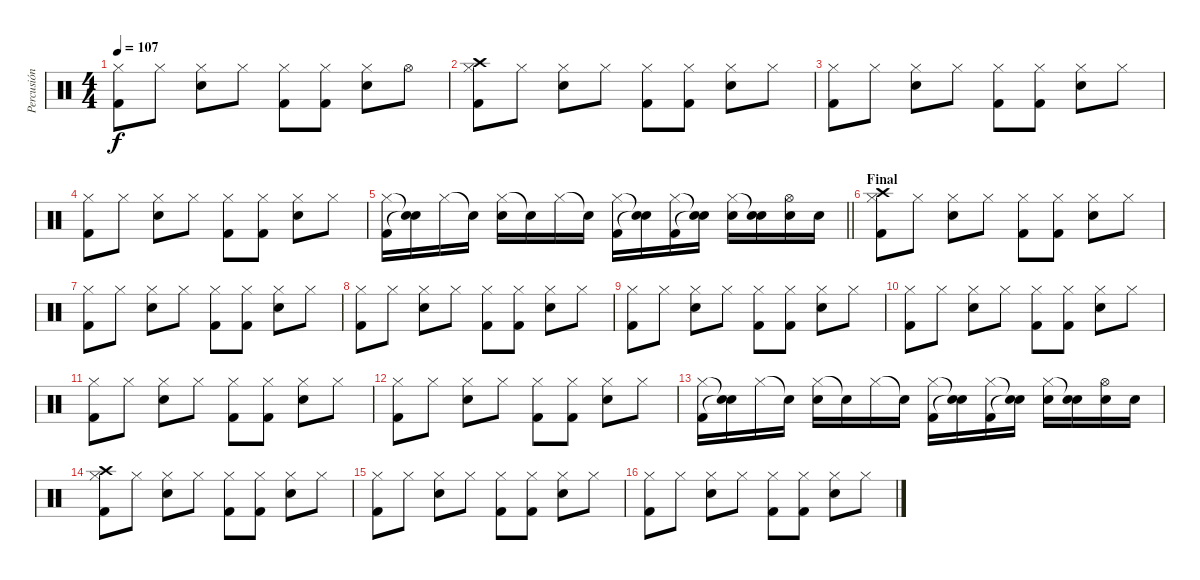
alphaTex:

\track ("Percusión" "Percusión") {instrument percussion}
\staff {score}
\articulation defaults
\ts (4 4)
\tempo 107
\clef neutral
\ks c
("Hi-Hat (closed)" "Kick (hit) 2").8{dy f} "Hi-Hat (closed)".8 ("Hi-Hat (closed)" "Snare (hit) 2").8 "Hi-Hat (closed)".8 ("Hi-Hat (closed)" "Kick (hit) 2").8 ("Hi-Hat (closed)" "Kick (hit) 2").8 ("Hi-Hat (closed)" "Snare (hit) 2").8 "Hi-Hat (open)".8 |
("Hi-Hat (closed)" "Kick (hit) 2" "Crash high (hit)").8 "Hi-Hat (closed)".8 ("Hi-Hat (closed)" "Snare (hit) 2").8 "Hi-Hat (closed)".8 ("Hi-Hat (closed)" "Kick (hit) 2").8 ("Hi-Hat (closed)" "Kick (hit) 2").8 ("Hi-Hat (closed)" "Snare (hit) 2").8 "Hi-Hat (closed)".8 |
("Hi-Hat (closed)" "Kick (hit) 2").8 "Hi-Hat (closed)".8 ("Hi-Hat (closed)" "Snare (hit) 2").8 "Hi-Hat (closed)".8 ("Hi-Hat (closed)" "Kick (hit) 2").8 ("Hi-Hat (closed)" "Kick (hit) 2").8 ("Hi-Hat (closed)" "Snare (hit) 2").8 "Hi-Hat (closed)".8 |
("Hi-Hat (closed)" "Kick (hit) 2").8 "Hi-Hat (closed)".8 ("Hi-Hat (closed)" "Snare (hit) 2").8 "Hi-Hat (closed)".8 ("Hi-Hat (closed)" "Kick (hit) 2").8 ("Hi-Hat (closed)" "Kick (hit) 2").8 ("Hi-Hat (closed)" "Snare (hit) 2").8 "Hi-Hat (closed)".8 |
\barLineRight lightlight
("Hi-Hat (closed)" "Kick (hit) 2").16 ("Snare (hit)"{t} "Snare (hit)"{t}).16 "Hi-Hat (closed)".16 "Snare (hit)"{t}.16 ("Hi-Hat (closed)" "Snare (hit) 2").16 "Snare (hit)"{t}.16 "Hi-Hat (closed)".16 "Snare (hit)"{t}.16 ("Hi-Hat (closed)" "Kick (hit) 2").16 ("Snare (hit)"{t} "Snare (hit)"{t}).16 ("Hi-Hat (closed)" "Kick (hit) 2").16 ("Snare (hit)"{t} "Snare (hit)"{t}).16 ("Hi-Hat (closed)" "Snare (hit) 2").16 ("Snare (hit)"{t} "Snare (hit) 2").16 ("Hi-Hat (open)" "Snare (hit) 2").16 "Snare (hit) 2".16 |
\section ("" "Final")
("Hi-Hat (closed)" "Kick (hit) 2" "Crash high (hit)").8 "Hi-Hat (closed)".8 ("Hi-Hat (closed)" "Snare (hit) 2").8 "Hi-Hat (closed)".8 ("Hi-Hat (closed)" "Kick (hit) 2").8 ("Hi-Hat (closed)" "Kick (hit) 2").8 ("Hi-Hat (closed)" "Snare (hit) 2").8 "Hi-Hat (closed)".8 |
("Hi-Hat (closed)" "Kick (hit) 2").8 "Hi-Hat (closed)".8 ("Hi-Hat (closed)" "Snare (hit) 2").8 "Hi-Hat (closed)".8 ("Hi-Hat (closed)" "Kick (hit) 2").8 ("Hi-Hat (closed)" "Kick (hit) 2").8 ("Hi-Hat (closed)" "Snare (hit) 2").8 "Hi-Hat (closed)".8 |
("Hi-Hat (closed)" "Kick (hit) 2").8 "Hi-Hat (closed)".8 ("Hi-Hat (closed)" "Snare (hit) 2").8 "Hi-Hat (closed)".8 ("Hi-Hat (closed)" "Kick (hit) 2").8 ("Hi-Hat (closed)" "Kick (hit) 2").8 ("Hi-Hat (closed)" "Snare (hit) 2").8 "Hi-Hat (closed)".8 |
("Hi-Hat (closed)" "Kick (hit) 2").8 "Hi-Hat (closed)".8 ("Hi-Hat (closed)" "Snare (hit) 2").8 "Hi-Hat (closed)".8 ("Hi-Hat (closed)" "Kick (hit) 2").8 ("Hi-Hat (closed)" "Kick (hit) 2").8 ("Hi-Hat (closed)" "Snare (hit) 2").8 "Hi-Hat (closed)".8 |
("Hi-Hat (closed)" "Kick (hit) 2").8 "Hi-Hat (closed)".8 ("Hi-Hat (closed)" "Snare (hit) 2").8 "Hi-Hat (closed)".8 ("Hi-Hat (closed)" "Kick (hit) 2").8 ("Hi-Hat (closed)" "Kick (hit) 2").8 ("Hi-Hat (closed)" "Snare (hit) 2").8 "Hi-Hat (closed)".8 |
("Hi-Hat (closed)" "Kick (hit) 2").8 "Hi-Hat (closed)".8 ("Hi-Hat (closed)" "Snare (hit) 2").8 "Hi-Hat (closed)".8 ("Hi-Hat (closed)" "Kick (hit) 2").8 ("Hi-Hat (closed)" "Kick (hit) 2").8 ("Hi-Hat (closed)" "Snare (hit) 2").8 "Hi-Hat (closed)".8 |
("Hi-Hat (closed)" "Kick (hit) 2").8 "Hi-Hat (closed)".8 ("Hi-Hat (closed)" "Snare (hit) 2").8 "Hi-Hat (closed)".8 ("Hi-Hat (closed)" "Kick (hit) 2").8 ("Hi-Hat (closed)" "Kick (hit) 2").8 ("Hi-Hat (closed)" "Snare (hit) 2").8 "Hi-Hat (closed)".8 |
("Hi-Hat (closed)" "Kick (hit) 2").16 ("Snare (hit)"{t} "Snare (hit)"{t}).16 "Hi-Hat (closed)".16 "Snare (hit)"{t}.16 ("Hi-Hat (closed)" "Snare (hit) 2").16 "Snare (hit)"{t}.16 "Hi-Hat (closed)".16 "Snare (hit)"{t}.16 ("Hi-Hat (closed)" "Kick (hit) 2").16 ("Snare (hit)"{t} "Snare (hit)"{t}).16 ("Hi-Hat (closed)" "Kick (hit) 2").16 ("Snare (hit)"{t} "Snare (hit)"{t}).16 ("Hi-Hat (closed)" "Snare (hit) 2").16 ("Snare (hit)"{t} "Snare (hit) 2").16 ("Hi-Hat (open)" "Snare (hit) 2").16 "Snare (hit) 2".16 |
("Hi-Hat (closed)" "Kick (hit) 2" "Crash high (hit)").8 "Hi-Hat (closed)".8 ("Hi-Hat (closed)" "Snare (hit) 2").8 "Hi-Hat (closed)".8 ("Hi-Hat (closed)" "Kick (hit) 2").8 ("Hi-Hat (closed)" "Kick (hit) 2").8 ("Hi-Hat (closed)" "Snare (hit) 2").8 "Hi-Hat (closed)".8 |
("Hi-Hat (closed)" "Kick (hit) 2").8 "Hi-Hat (closed)".8 ("Hi-Hat (closed)" "Snare (hit) 2").8 "Hi-Hat (closed)".8 ("Hi-Hat (closed)" "Kick (hit) 2").8 ("Hi-Hat (closed)" "Kick (hit) 2").8 ("Hi-Hat (closed)" "Snare (hit) 2").8 "Hi-Hat (closed)".8 |
("Hi-Hat (closed)" "Kick (hit) 2").8 "Hi-Hat (closed)".8 ("Hi-Hat (closed)" "Snare (hit) 2").8 "Hi-Hat (closed)".8 ("Hi-Hat (closed)" "Kick (hit) 2").8 ("Hi-Hat (closed)" "Kick (hit) 2").8 ("Hi-Hat (closed)" "Snare (hit) 2").8 "Hi-Hat (closed)".8
